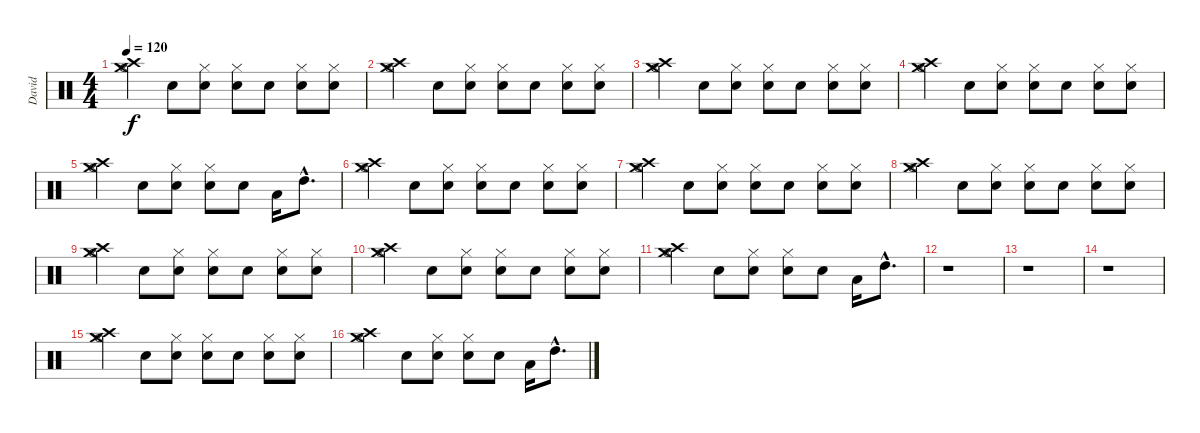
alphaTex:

\track ("David " "David ") {instrument percussion}
\staff {score}
\articulation defaults
\ts (4 4)
\tempo 120
\clef neutral
\ks c
("Crash medium (hit)" "Hi-Hat (open)" "Crash high (hit)").4{dy f} "Snare (hit) 2".8 ("Electric Snare (hit)" "Hi-Hat (closed)").8 ("Electric Snare (hit)" "Hi-Hat (closed)").8 "Snare (hit) 2".8 ("Electric Snare (hit)" "Hi-Hat (closed)").8 ("Electric Snare (hit)" "Hi-Hat (closed)").8 |
("Crash high (hit)" "Crash medium (hit)" "Hi-Hat (open)").4 "Snare (hit) 2".8 ("Electric Snare (hit)" "Hi-Hat (closed)").8 ("Electric Snare (hit)" "Hi-Hat (closed)").8 "Snare (hit) 2".8 ("Electric Snare (hit)" "Hi-Hat (closed)").8 ("Electric Snare (hit)" "Hi-Hat (closed)").8 |
("Crash medium (hit)" "Hi-Hat (open)" "Crash high (hit)").4 "Snare (hit) 2".8 ("Electric Snare (hit)" "Hi-Hat (closed)").8 ("Electric Snare (hit)" "Hi-Hat (closed)").8 "Snare (hit) 2".8 ("Electric Snare (hit)" "Hi-Hat (closed)").8 ("Electric Snare (hit)" "Hi-Hat (closed)").8 |
("Crash high (hit)" "Crash medium (hit)" "Hi-Hat (open)").4 "Snare (hit) 2".8 ("Electric Snare (hit)" "Hi-Hat (closed)").8 ("Electric Snare (hit)" "Hi-Hat (closed)").8 "Snare (hit) 2".8 ("Electric Snare (hit)" "Hi-Hat (closed)").8 ("Electric Snare (hit)" "Hi-Hat (closed)").8 |
("Crash medium (hit)" "Hi-Hat (open)" "Crash high (hit)").4 "Snare (hit) 2".8 ("Electric Snare (hit)" "Hi-Hat (closed)").8 ("Electric Snare (hit)" "Hi-Hat (closed)").8 "Snare (hit) 2".8 "Low Tom (hit)".16 "High Tom (hit)"{hac}.8{d} |
("Crash high (hit)" "Crash medium (hit)" "Hi-Hat (open)").4 "Snare (hit) 2".8 ("Electric Snare (hit)" "Hi-Hat (closed)").8 ("Electric Snare (hit)" "Hi-Hat (closed)").8 "Snare (hit) 2".8 ("Electric Snare (hit)" "Hi-Hat (closed)").8 ("Electric Snare (hit)" "Hi-Hat (closed)").8 |
("Crash medium (hit)" "Hi-Hat (open)" "Crash high (hit)").4 "Snare (hit) 2".8 ("Electric Snare (hit)" "Hi-Hat (closed)").8 ("Electric Snare (hit)" "Hi-Hat (closed)").8 "Snare (hit) 2".8 ("Electric Snare (hit)" "Hi-Hat (closed)").8 ("Electric Snare (hit)" "Hi-Hat (closed)").8 |
("Crash high (hit)" "Crash medium (hit)" "Hi-Hat (open)").4 "Snare (hit) 2".8 ("Electric Snare (hit)" "Hi-Hat (closed)").8 ("Electric Snare (hit)" "Hi-Hat (closed)").8 "Snare (hit) 2".8 ("Electric Snare (hit)" "Hi-Hat (closed)").8 ("Electric Snare (hit)" "Hi-Hat (closed)").8 |
("Crash medium (hit)" "Hi-Hat (open)" "Crash high (hit)").4 "Snare (hit) 2".8 ("Electric Snare (hit)" "Hi-Hat (closed)").8 ("Electric Snare (hit)" "Hi-Hat (closed)").8 "Snare (hit) 2".8 ("Electric Snare (hit)" "Hi-Hat (closed)").8 ("Electric Snare (hit)" "Hi-Hat (closed)").8 |
("Crash high (hit)" "Crash medium (hit)" "Hi-Hat (open)").4 "Snare (hit) 2".8 ("Electric Snare (hit)" "Hi-Hat (closed)").8 ("Electric Snare (hit)" "Hi-Hat (closed)").8 "Snare (hit) 2".8 ("Electric Snare (hit)" "Hi-Hat (closed)").8 ("Electric Snare (hit)" "Hi-Hat (closed)").8 |
("Crash medium (hit)" "Hi-Hat (open)" "Crash high (hit)").4 "Snare (hit) 2".8 ("Electric Snare (hit)" "Hi-Hat (closed)").8 ("Electric Snare (hit)" "Hi-Hat (closed)").8 "Snare (hit) 2".8 "Low Tom (hit)".16 "High Tom (hit)"{hac}.8{d} |
r.1 |
r.1 |
r.1 |
("Crash high (hit)" "Crash medium (hit)" "Hi-Hat (open)").4 "Snare (hit) 2".8 ("Electric Snare (hit)" "Hi-Hat (closed)").8 ("Electric Snare (hit)" "Hi-Hat (closed)").8 "Snare (hit) 2".8 ("Electric Snare (hit)" "Hi-Hat (closed)").8 ("Electric Snare (hit)" "Hi-Hat (closed)").8 |
("Crash medium (hit)" "Hi-Hat (open)" "Crash high (hit)").4 "Snare (hit) 2".8 ("Electric Snare (hit)" "Hi-Hat (closed)").8 ("Electric Snare (hit)" "Hi-Hat (closed)").8 "Snare (hit) 2".8 "Low Tom (hit)".16 "High Tom (hit)"{hac}.8{d}
